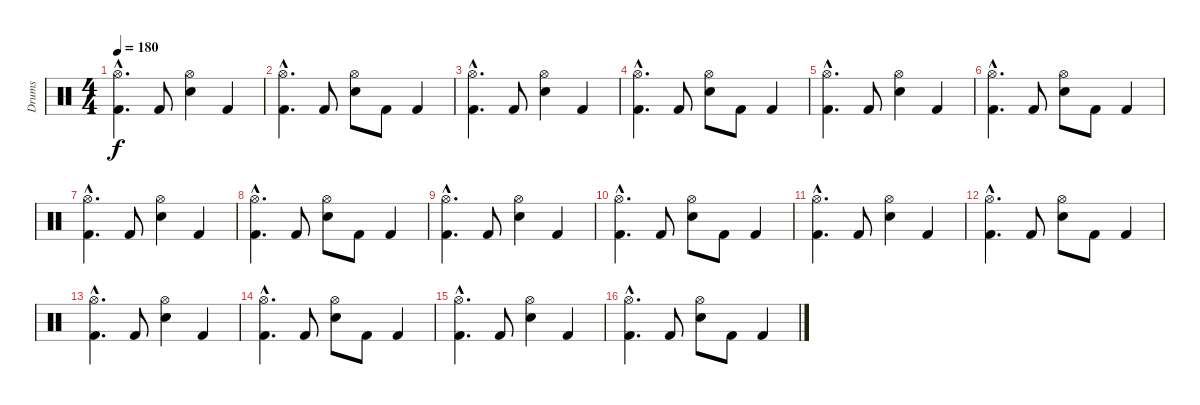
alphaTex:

\track ("Drums" "Drums") {instrument percussion}
\staff {score}
\articulation defaults
\ts (4 4)
\tempo 180
\clef neutral
\ks c
("Hi-Hat (open)"{hac} "Kick (hit) 2"{hac}).4{d dy f} "Kick (hit) 2".8 ("Hi-Hat (open)" "Electric Snare (hit)").4 "Kick (hit) 2".4 |
("Hi-Hat (open)"{hac} "Kick (hit) 2"{hac}).4{d} "Kick (hit) 2".8 ("Hi-Hat (open)" "Electric Snare (hit)").8 "Kick (hit) 2".8 "Kick (hit) 2".4 |
("Hi-Hat (open)"{hac} "Kick (hit) 2"{hac}).4{d} "Kick (hit) 2".8 ("Hi-Hat (open)" "Electric Snare (hit)").4 "Kick (hit) 2".4 |
("Hi-Hat (open)"{hac} "Kick (hit) 2"{hac}).4{d} "Kick (hit) 2".8 ("Hi-Hat (open)" "Electric Snare (hit)").8 "Kick (hit) 2".8 "Kick (hit) 2".4 |
("Hi-Hat (open)"{hac} "Kick (hit) 2"{hac}).4{d} "Kick (hit) 2".8 ("Hi-Hat (open)" "Electric Snare (hit)").4 "Kick (hit) 2".4 |
("Hi-Hat (open)"{hac} "Kick (hit) 2"{hac}).4{d} "Kick (hit) 2".8 ("Hi-Hat (open)" "Electric Snare (hit)").8 "Kick (hit) 2".8 "Kick (hit) 2".4 |
("Hi-Hat (open)"{hac} "Kick (hit) 2"{hac}).4{d} "Kick (hit) 2".8 ("Hi-Hat (open)" "Electric Snare (hit)").4 "Kick (hit) 2".4 |
("Hi-Hat (open)"{hac} "Kick (hit) 2"{hac}).4{d} "Kick (hit) 2".8 ("Hi-Hat (open)" "Electric Snare (hit)").8 "Kick (hit) 2".8 "Kick (hit) 2".4 |
("Hi-Hat (open)"{hac} "Kick (hit) 2"{hac}).4{d} "Kick (hit) 2".8 ("Hi-Hat (open)" "Electric Snare (hit)").4 "Kick (hit) 2".4 |
("Hi-Hat (open)"{hac} "Kick (hit) 2"{hac}).4{d} "Kick (hit) 2".8 ("Hi-Hat (open)" "Electric Snare (hit)").8 "Kick (hit) 2".8 "Kick (hit) 2".4 |
("Hi-Hat (open)"{hac} "Kick (hit) 2"{hac}).4{d} "Kick (hit) 2".8 ("Hi-Hat (open)" "Electric Snare (hit)").4 "Kick (hit) 2".4 |
("Hi-Hat (open)"{hac} "Kick (hit) 2"{hac}).4{d} "Kick (hit) 2".8 ("Hi-Hat (open)" "Electric Snare (hit)").8 "Kick (hit) 2".8 "Kick (hit) 2".4 |
("Hi-Hat (open)"{hac} "Kick (hit) 2"{hac}).4{d} "Kick (hit) 2".8 ("Hi-Hat (open)" "Electric Snare (hit)").4 "Kick (hit) 2".4 |
("Hi-Hat (open)"{hac} "Kick (hit) 2"{hac}).4{d} "Kick (hit) 2".8 ("Hi-Hat (open)" "Electric Snare (hit)").8 "Kick (hit) 2".8 "Kick (hit) 2".4 |
("Hi-Hat (open)"{hac} "Kick (hit) 2"{hac}).4{d} "Kick (hit) 2".8 ("Hi-Hat (open)" "Electric Snare (hit)").4 "Kick (hit) 2".4 |
("Hi-Hat (open)"{hac} "Kick (hit) 2"{hac}).4{d} "Kick (hit) 2".8 ("Hi-Hat (open)" "Electric Snare (hit)").8 "Kick (hit) 2".8 "Kick (hit) 2".4
